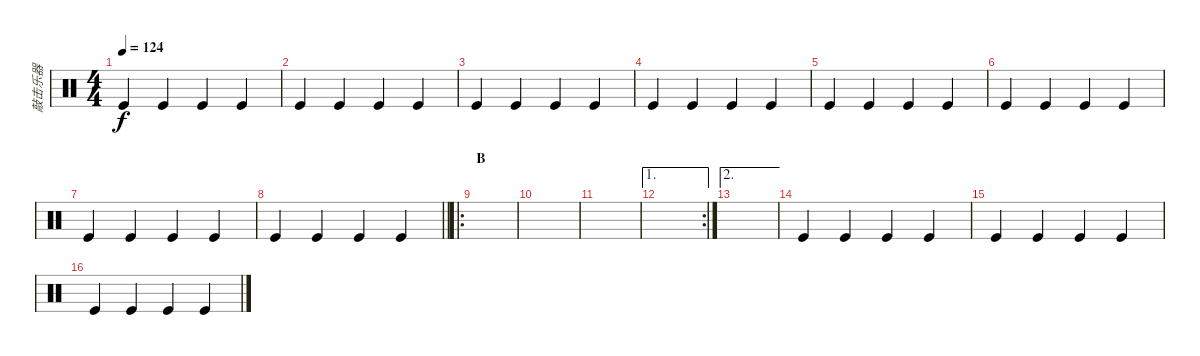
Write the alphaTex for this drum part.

\track ("敲击乐器" "敲击乐器") {instrument percussion}
\staff {score}
\articulation defaults
\ts (4 4)
\tempo 124
\clef neutral
\ks c "Kick (hit)".4{dy f} "Kick (hit)".4 "Kick (hit)".4 "Kick (hit)".4
|
"Kick (hit)".4 "Kick (hit)".4 "Kick (hit)".4 "Kick (hit)".4 |
"Kick (hit)".4 "Kick (hit)".4 "Kick (hit)".4 "Kick (hit)".4 |
"Kick (hit)".4 "Kick (hit)".4 "Kick (hit)".4 "Kick (hit)".4 |
"Kick (hit)".4 "Kick (hit)".4 "Kick (hit)".4 "Kick (hit)".4 |
"Kick (hit)".4 "Kick (hit)".4 "Kick (hit)".4 "Kick (hit)".4 |
"Kick (hit)".4 "Kick (hit)".4 "Kick (hit)".4 "Kick (hit)".4 |
\barLineRight lightlight "Kick (hit)".4 "Kick (hit)".4 "Kick (hit)".4 "Kick (hit)".4
|
\ro
\section ("" "B")
|
|
|
\ae 1
\rc 2
|
\ae 2
|
"Kick (hit)".4 "Kick (hit)".4 "Kick (hit)".4 "Kick (hit)".4 |
"Kick (hit)".4 "Kick (hit)".4 "Kick (hit)".4 "Kick (hit)".4 |
"Kick (hit)".4 "Kick (hit)".4 "Kick (hit)".4 "Kick (hit)".4
